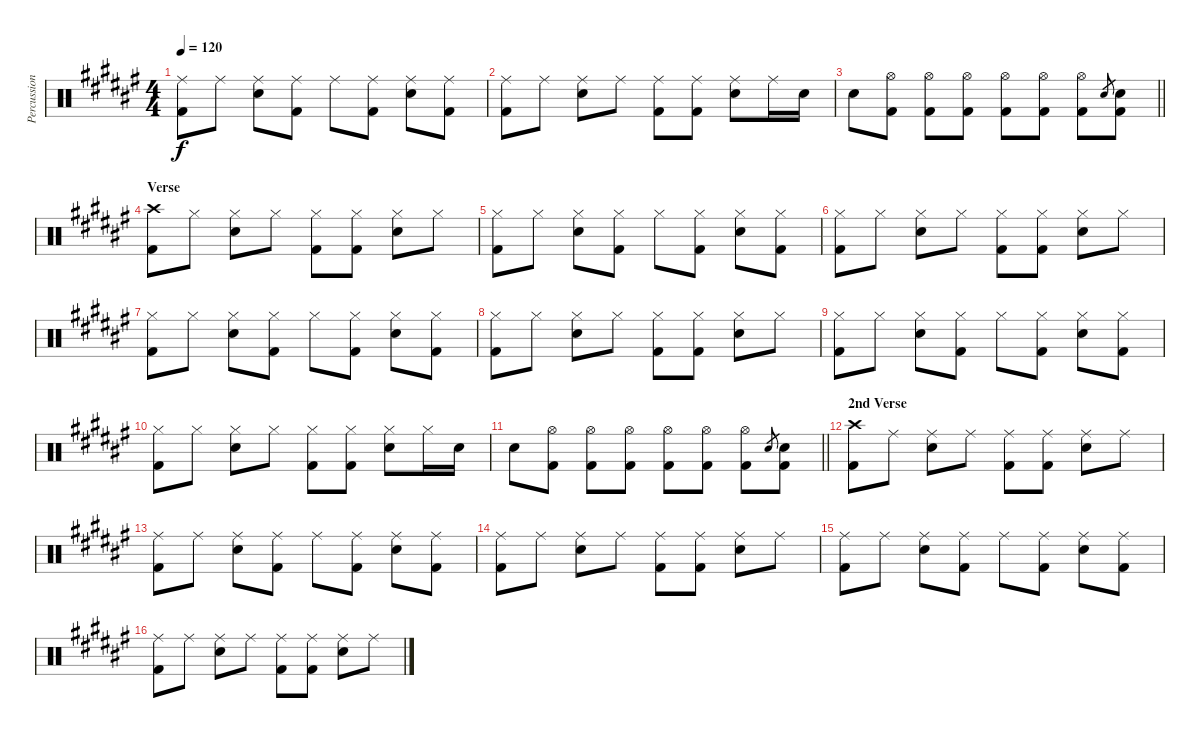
\track ("Percussion" "Percussion") {instrument percussion}
\staff {score}
\articulation defaults
\ts (4 4)
\tempo 120
\clef neutral
\ks f#
("Ride (middle)" "Kick (hit) 2").8{dy f} "Ride (middle)".8 ("Ride (middle)" "Electric Snare (hit)").8 ("Ride (middle)" "Kick (hit) 2").8 "Ride (middle)".8 ("Ride (middle)" "Kick (hit) 2").8 ("Ride (middle)" "Electric Snare (hit)").8 ("Ride (middle)" "Kick (hit) 2").8 |
("Ride (middle)" "Kick (hit) 2").8 "Ride (middle)".8 ("Ride (middle)" "Electric Snare (hit)").8 "Ride (middle)".8 ("Ride (middle)" "Kick (hit) 2").8 ("Ride (middle)" "Kick (hit) 2").8 ("Ride (middle)" "Electric Snare (hit)").8 "Ride (middle)".16 "Electric Snare (hit)".16 |
\barLineRight lightlight "Electric Snare (hit)".8
("Hi-Hat (open)" "Kick (hit) 2").8 ("Hi-Hat (open)" "Kick (hit) 2").8 ("Hi-Hat (open)" "Kick (hit) 2").8 ("Hi-Hat (open)" "Kick (hit) 2").8 ("Hi-Hat (open)" "Kick (hit) 2").8 ("Hi-Hat (open)" "Kick (hit) 2").8 "Electric Snare (hit)".8{gr} ("Electric Snare (hit)" "Kick (hit) 2").8 |
\section ("" "Verse")
("Crash high (hit)" "Kick (hit) 2").8 "Hi-Hat (closed)".8 ("Hi-Hat (closed)" "Electric Snare (hit)").8 "Hi-Hat (closed)".8 ("Hi-Hat (closed)" "Kick (hit) 2").8 ("Hi-Hat (closed)" "Kick (hit) 2").8 ("Hi-Hat (closed)" "Electric Snare (hit)").8 "Hi-Hat (closed)".8 |
("Hi-Hat (closed)" "Kick (hit) 2").8 "Hi-Hat (closed)".8 ("Hi-Hat (closed)" "Electric Snare (hit)").8 ("Hi-Hat (closed)" "Kick (hit) 2").8 "Hi-Hat (closed)".8 ("Hi-Hat (closed)" "Kick (hit) 2").8 ("Hi-Hat (closed)" "Electric Snare (hit)").8 ("Hi-Hat (closed)" "Kick (hit) 2").8 |
("Hi-Hat (closed)" "Kick (hit) 2").8 "Hi-Hat (closed)".8 ("Hi-Hat (closed)" "Electric Snare (hit)").8 "Hi-Hat (closed)".8 ("Hi-Hat (closed)" "Kick (hit) 2").8 ("Hi-Hat (closed)" "Kick (hit) 2").8 ("Hi-Hat (closed)" "Electric Snare (hit)").8 "Hi-Hat (closed)".8 |
("Hi-Hat (closed)" "Kick (hit) 2").8 "Hi-Hat (closed)".8 ("Hi-Hat (closed)" "Electric Snare (hit)").8 ("Hi-Hat (closed)" "Kick (hit) 2").8 "Hi-Hat (closed)".8 ("Hi-Hat (closed)" "Kick (hit) 2").8 ("Hi-Hat (closed)" "Electric Snare (hit)").8 ("Hi-Hat (closed)" "Kick (hit) 2").8 |
("Hi-Hat (closed)" "Kick (hit) 2").8 "Hi-Hat (closed)".8 ("Hi-Hat (closed)" "Electric Snare (hit)").8 "Hi-Hat (closed)".8 ("Hi-Hat (closed)" "Kick (hit) 2").8 ("Hi-Hat (closed)" "Kick (hit) 2").8 ("Hi-Hat (closed)" "Electric Snare (hit)").8 "Hi-Hat (closed)".8 |
("Hi-Hat (closed)" "Kick (hit) 2").8 "Hi-Hat (closed)".8 ("Hi-Hat (closed)" "Electric Snare (hit)").8 ("Hi-Hat (closed)" "Kick (hit) 2").8 "Hi-Hat (closed)".8 ("Hi-Hat (closed)" "Kick (hit) 2").8 ("Hi-Hat (closed)" "Electric Snare (hit)").8 ("Hi-Hat (closed)" "Kick (hit) 2").8 |
("Hi-Hat (closed)" "Kick (hit) 2").8 "Hi-Hat (closed)".8 ("Hi-Hat (closed)" "Electric Snare (hit)").8 "Hi-Hat (closed)".8 ("Hi-Hat (closed)" "Kick (hit) 2").8 ("Hi-Hat (closed)" "Kick (hit) 2").8 ("Hi-Hat (closed)" "Electric Snare (hit)").8 "Hi-Hat (closed)".16 "Electric Snare (hit)".16 |
\barLineRight lightlight "Electric Snare (hit)".8
("Hi-Hat (open)" "Kick (hit) 2").8 ("Hi-Hat (open)" "Kick (hit) 2").8 ("Hi-Hat (open)" "Kick (hit) 2").8 ("Hi-Hat (open)" "Kick (hit) 2").8 ("Hi-Hat (open)" "Kick (hit) 2").8 ("Hi-Hat (open)" "Kick (hit) 2").8 "Electric Snare (hit)".8{gr} ("Electric Snare (hit)" "Kick (hit) 2").8 |
\section ("" "2nd Verse")
("Crash high (hit)" "Kick (hit) 2").8 "Ride (middle)".8 ("Ride (middle)" "Electric Snare (hit)").8 "Ride (middle)".8 ("Ride (middle)" "Kick (hit) 2").8 ("Ride (middle)" "Kick (hit) 2").8 ("Ride (middle)" "Electric Snare (hit)").8 "Ride (middle)".8 |
("Ride (middle)" "Kick (hit) 2").8 "Ride (middle)".8 ("Ride (middle)" "Electric Snare (hit)").8 ("Ride (middle)" "Kick (hit) 2").8 "Ride (middle)".8 ("Ride (middle)" "Kick (hit) 2").8 ("Ride (middle)" "Electric Snare (hit)").8 ("Ride (middle)" "Kick (hit) 2").8 |
("Ride (middle)" "Kick (hit) 2").8 "Ride (middle)".8 ("Ride (middle)" "Electric Snare (hit)").8 "Ride (middle)".8 ("Ride (middle)" "Kick (hit) 2").8 ("Ride (middle)" "Kick (hit) 2").8 ("Ride (middle)" "Electric Snare (hit)").8 "Ride (middle)".8 |
("Ride (middle)" "Kick (hit) 2").8 "Ride (middle)".8 ("Ride (middle)" "Electric Snare (hit)").8 ("Ride (middle)" "Kick (hit) 2").8 "Ride (middle)".8 ("Ride (middle)" "Kick (hit) 2").8 ("Ride (middle)" "Electric Snare (hit)").8 ("Ride (middle)" "Kick (hit) 2").8 |
("Ride (middle)" "Kick (hit) 2").8 "Ride (middle)".8 ("Ride (middle)" "Electric Snare (hit)").8 "Ride (middle)".8 ("Ride (middle)" "Kick (hit) 2").8 ("Ride (middle)" "Kick (hit) 2").8 ("Ride (middle)" "Electric Snare (hit)").8 "Ride (middle)".8
